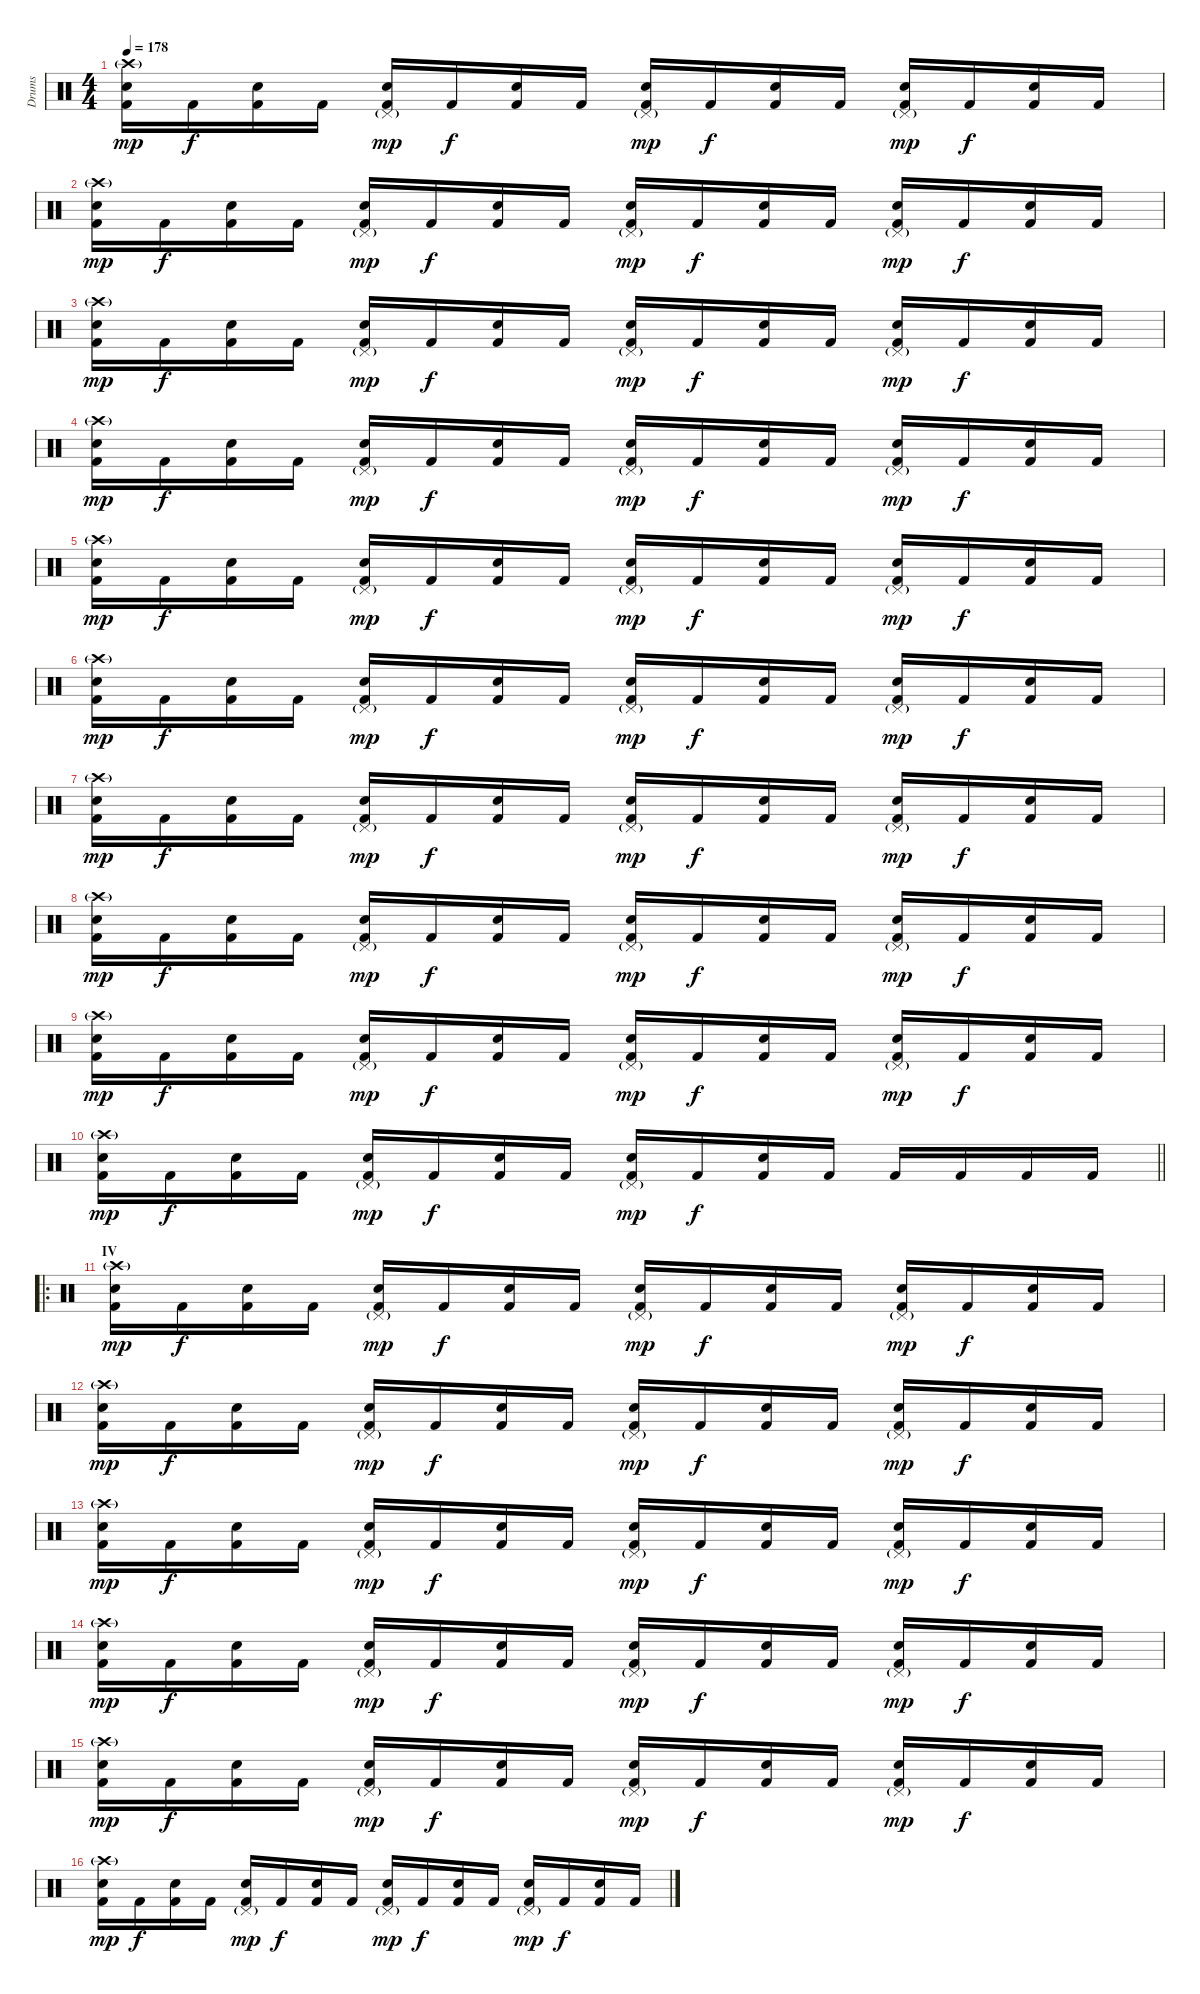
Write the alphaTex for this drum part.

\track ("Drums" "Drums") {instrument percussion}
\staff {score}
\articulation defaults
\ts (4 4)
\tempo 178
\clef neutral
\ks c
("Crash high (hit)"{g} "Electric Snare (hit)" "Kick (hit) 2").16{dy mp} "Kick (hit) 2".16{dy f} ("Electric Snare (hit)" "Kick (hit) 2").16 "Kick (hit) 2".16 ("Pedal Hi-Hat (hit)"{g} "Electric Snare (hit)" "Kick (hit) 2").16{dy mp} "Kick (hit) 2".16{dy f} ("Electric Snare (hit)" "Kick (hit) 2").16 "Kick (hit) 2".16 ("Pedal Hi-Hat (hit)"{g} "Electric Snare (hit)" "Kick (hit) 2").16{dy mp} "Kick (hit) 2".16{dy f} ("Electric Snare (hit)" "Kick (hit) 2").16 "Kick (hit) 2".16 ("Pedal Hi-Hat (hit)"{g} "Electric Snare (hit)" "Kick (hit) 2").16{dy mp} "Kick (hit) 2".16{dy f} ("Electric Snare (hit)" "Kick (hit) 2").16 "Kick (hit) 2".16 |
("Crash high (hit)"{g} "Electric Snare (hit)" "Kick (hit) 2").16{dy mp} "Kick (hit) 2".16{dy f} ("Electric Snare (hit)" "Kick (hit) 2").16 "Kick (hit) 2".16 ("Pedal Hi-Hat (hit)"{g} "Electric Snare (hit)" "Kick (hit) 2").16{dy mp} "Kick (hit) 2".16{dy f} ("Electric Snare (hit)" "Kick (hit) 2").16 "Kick (hit) 2".16 ("Pedal Hi-Hat (hit)"{g} "Electric Snare (hit)" "Kick (hit) 2").16{dy mp} "Kick (hit) 2".16{dy f} ("Electric Snare (hit)" "Kick (hit) 2").16 "Kick (hit) 2".16 ("Pedal Hi-Hat (hit)"{g} "Electric Snare (hit)" "Kick (hit) 2").16{dy mp} "Kick (hit) 2".16{dy f} ("Electric Snare (hit)" "Kick (hit) 2").16 "Kick (hit) 2".16 |
("Crash high (hit)"{g} "Electric Snare (hit)" "Kick (hit) 2").16{dy mp} "Kick (hit) 2".16{dy f} ("Electric Snare (hit)" "Kick (hit) 2").16 "Kick (hit) 2".16 ("Pedal Hi-Hat (hit)"{g} "Electric Snare (hit)" "Kick (hit) 2").16{dy mp} "Kick (hit) 2".16{dy f} ("Electric Snare (hit)" "Kick (hit) 2").16 "Kick (hit) 2".16 ("Pedal Hi-Hat (hit)"{g} "Electric Snare (hit)" "Kick (hit) 2").16{dy mp} "Kick (hit) 2".16{dy f} ("Electric Snare (hit)" "Kick (hit) 2").16 "Kick (hit) 2".16 ("Pedal Hi-Hat (hit)"{g} "Electric Snare (hit)" "Kick (hit) 2").16{dy mp} "Kick (hit) 2".16{dy f} ("Electric Snare (hit)" "Kick (hit) 2").16 "Kick (hit) 2".16 |
("Crash high (hit)"{g} "Electric Snare (hit)" "Kick (hit) 2").16{dy mp} "Kick (hit) 2".16{dy f} ("Electric Snare (hit)" "Kick (hit) 2").16 "Kick (hit) 2".16 ("Pedal Hi-Hat (hit)"{g} "Electric Snare (hit)" "Kick (hit) 2").16{dy mp} "Kick (hit) 2".16{dy f} ("Electric Snare (hit)" "Kick (hit) 2").16 "Kick (hit) 2".16 ("Pedal Hi-Hat (hit)"{g} "Electric Snare (hit)" "Kick (hit) 2").16{dy mp} "Kick (hit) 2".16{dy f} ("Electric Snare (hit)" "Kick (hit) 2").16 "Kick (hit) 2".16 ("Pedal Hi-Hat (hit)"{g} "Electric Snare (hit)" "Kick (hit) 2").16{dy mp} "Kick (hit) 2".16{dy f} ("Electric Snare (hit)" "Kick (hit) 2").16 "Kick (hit) 2".16 |
("Crash high (hit)"{g} "Electric Snare (hit)" "Kick (hit) 2").16{dy mp} "Kick (hit) 2".16{dy f} ("Electric Snare (hit)" "Kick (hit) 2").16 "Kick (hit) 2".16 ("Pedal Hi-Hat (hit)"{g} "Electric Snare (hit)" "Kick (hit) 2").16{dy mp} "Kick (hit) 2".16{dy f} ("Electric Snare (hit)" "Kick (hit) 2").16 "Kick (hit) 2".16 ("Pedal Hi-Hat (hit)"{g} "Electric Snare (hit)" "Kick (hit) 2").16{dy mp} "Kick (hit) 2".16{dy f} ("Electric Snare (hit)" "Kick (hit) 2").16 "Kick (hit) 2".16 ("Pedal Hi-Hat (hit)"{g} "Electric Snare (hit)" "Kick (hit) 2").16{dy mp} "Kick (hit) 2".16{dy f} ("Electric Snare (hit)" "Kick (hit) 2").16 "Kick (hit) 2".16 |
("Crash high (hit)"{g} "Electric Snare (hit)" "Kick (hit) 2").16{dy mp} "Kick (hit) 2".16{dy f} ("Electric Snare (hit)" "Kick (hit) 2").16 "Kick (hit) 2".16 ("Pedal Hi-Hat (hit)"{g} "Electric Snare (hit)" "Kick (hit) 2").16{dy mp} "Kick (hit) 2".16{dy f} ("Electric Snare (hit)" "Kick (hit) 2").16 "Kick (hit) 2".16 ("Pedal Hi-Hat (hit)"{g} "Electric Snare (hit)" "Kick (hit) 2").16{dy mp} "Kick (hit) 2".16{dy f} ("Electric Snare (hit)" "Kick (hit) 2").16 "Kick (hit) 2".16 ("Pedal Hi-Hat (hit)"{g} "Electric Snare (hit)" "Kick (hit) 2").16{dy mp} "Kick (hit) 2".16{dy f} ("Electric Snare (hit)" "Kick (hit) 2").16 "Kick (hit) 2".16 |
("Crash high (hit)"{g} "Electric Snare (hit)" "Kick (hit) 2").16{dy mp} "Kick (hit) 2".16{dy f} ("Electric Snare (hit)" "Kick (hit) 2").16 "Kick (hit) 2".16 ("Pedal Hi-Hat (hit)"{g} "Electric Snare (hit)" "Kick (hit) 2").16{dy mp} "Kick (hit) 2".16{dy f} ("Electric Snare (hit)" "Kick (hit) 2").16 "Kick (hit) 2".16 ("Pedal Hi-Hat (hit)"{g} "Electric Snare (hit)" "Kick (hit) 2").16{dy mp} "Kick (hit) 2".16{dy f} ("Electric Snare (hit)" "Kick (hit) 2").16 "Kick (hit) 2".16 ("Pedal Hi-Hat (hit)"{g} "Electric Snare (hit)" "Kick (hit) 2").16{dy mp} "Kick (hit) 2".16{dy f} ("Electric Snare (hit)" "Kick (hit) 2").16 "Kick (hit) 2".16 |
("Crash high (hit)"{g} "Electric Snare (hit)" "Kick (hit) 2").16{dy mp} "Kick (hit) 2".16{dy f} ("Electric Snare (hit)" "Kick (hit) 2").16 "Kick (hit) 2".16 ("Pedal Hi-Hat (hit)"{g} "Electric Snare (hit)" "Kick (hit) 2").16{dy mp} "Kick (hit) 2".16{dy f} ("Electric Snare (hit)" "Kick (hit) 2").16 "Kick (hit) 2".16 ("Pedal Hi-Hat (hit)"{g} "Electric Snare (hit)" "Kick (hit) 2").16{dy mp} "Kick (hit) 2".16{dy f} ("Electric Snare (hit)" "Kick (hit) 2").16 "Kick (hit) 2".16 ("Pedal Hi-Hat (hit)"{g} "Electric Snare (hit)" "Kick (hit) 2").16{dy mp} "Kick (hit) 2".16{dy f} ("Electric Snare (hit)" "Kick (hit) 2").16 "Kick (hit) 2".16 |
("Crash high (hit)"{g} "Electric Snare (hit)" "Kick (hit) 2").16{dy mp} "Kick (hit) 2".16{dy f} ("Electric Snare (hit)" "Kick (hit) 2").16 "Kick (hit) 2".16 ("Pedal Hi-Hat (hit)"{g} "Electric Snare (hit)" "Kick (hit) 2").16{dy mp} "Kick (hit) 2".16{dy f} ("Electric Snare (hit)" "Kick (hit) 2").16 "Kick (hit) 2".16 ("Pedal Hi-Hat (hit)"{g} "Electric Snare (hit)" "Kick (hit) 2").16{dy mp} "Kick (hit) 2".16{dy f} ("Electric Snare (hit)" "Kick (hit) 2").16 "Kick (hit) 2".16 ("Pedal Hi-Hat (hit)"{g} "Electric Snare (hit)" "Kick (hit) 2").16{dy mp} "Kick (hit) 2".16{dy f} ("Electric Snare (hit)" "Kick (hit) 2").16 "Kick (hit) 2".16 |
\barLineRight lightlight
("Crash high (hit)"{g} "Electric Snare (hit)" "Kick (hit) 2").16{dy mp} "Kick (hit) 2".16{dy f} ("Electric Snare (hit)" "Kick (hit) 2").16 "Kick (hit) 2".16 ("Pedal Hi-Hat (hit)"{g} "Electric Snare (hit)" "Kick (hit) 2").16{dy mp} "Kick (hit) 2".16{dy f} ("Electric Snare (hit)" "Kick (hit) 2").16 "Kick (hit) 2".16 ("Pedal Hi-Hat (hit)"{g} "Electric Snare (hit)" "Kick (hit) 2").16{dy mp} "Kick (hit) 2".16{dy f} ("Electric Snare (hit)" "Kick (hit) 2").16 "Kick (hit) 2".16 "Kick (hit) 2".16 "Kick (hit) 2".16 "Kick (hit) 2".16 "Kick (hit) 2".16 |
\ro
\section ("" "IV")
("Crash high (hit)"{g} "Electric Snare (hit)" "Kick (hit) 2").16{dy mp} "Kick (hit) 2".16{dy f} ("Electric Snare (hit)" "Kick (hit) 2").16 "Kick (hit) 2".16 ("Pedal Hi-Hat (hit)"{g} "Electric Snare (hit)" "Kick (hit) 2").16{dy mp} "Kick (hit) 2".16{dy f} ("Electric Snare (hit)" "Kick (hit) 2").16 "Kick (hit) 2".16 ("Pedal Hi-Hat (hit)"{g} "Electric Snare (hit)" "Kick (hit) 2").16{dy mp} "Kick (hit) 2".16{dy f} ("Electric Snare (hit)" "Kick (hit) 2").16 "Kick (hit) 2".16 ("Pedal Hi-Hat (hit)"{g} "Electric Snare (hit)" "Kick (hit) 2").16{dy mp} "Kick (hit) 2".16{dy f} ("Electric Snare (hit)" "Kick (hit) 2").16 "Kick (hit) 2".16 |
("Crash high (hit)"{g} "Electric Snare (hit)" "Kick (hit) 2").16{dy mp} "Kick (hit) 2".16{dy f} ("Electric Snare (hit)" "Kick (hit) 2").16 "Kick (hit) 2".16 ("Pedal Hi-Hat (hit)"{g} "Electric Snare (hit)" "Kick (hit) 2").16{dy mp} "Kick (hit) 2".16{dy f} ("Electric Snare (hit)" "Kick (hit) 2").16 "Kick (hit) 2".16 ("Pedal Hi-Hat (hit)"{g} "Electric Snare (hit)" "Kick (hit) 2").16{dy mp} "Kick (hit) 2".16{dy f} ("Electric Snare (hit)" "Kick (hit) 2").16 "Kick (hit) 2".16 ("Pedal Hi-Hat (hit)"{g} "Electric Snare (hit)" "Kick (hit) 2").16{dy mp} "Kick (hit) 2".16{dy f} ("Electric Snare (hit)" "Kick (hit) 2").16 "Kick (hit) 2".16 |
("Crash high (hit)"{g} "Electric Snare (hit)" "Kick (hit) 2").16{dy mp} "Kick (hit) 2".16{dy f} ("Electric Snare (hit)" "Kick (hit) 2").16 "Kick (hit) 2".16 ("Pedal Hi-Hat (hit)"{g} "Electric Snare (hit)" "Kick (hit) 2").16{dy mp} "Kick (hit) 2".16{dy f} ("Electric Snare (hit)" "Kick (hit) 2").16 "Kick (hit) 2".16 ("Pedal Hi-Hat (hit)"{g} "Electric Snare (hit)" "Kick (hit) 2").16{dy mp} "Kick (hit) 2".16{dy f} ("Electric Snare (hit)" "Kick (hit) 2").16 "Kick (hit) 2".16 ("Pedal Hi-Hat (hit)"{g} "Electric Snare (hit)" "Kick (hit) 2").16{dy mp} "Kick (hit) 2".16{dy f} ("Electric Snare (hit)" "Kick (hit) 2").16 "Kick (hit) 2".16 |
("Crash high (hit)"{g} "Electric Snare (hit)" "Kick (hit) 2").16{dy mp} "Kick (hit) 2".16{dy f} ("Electric Snare (hit)" "Kick (hit) 2").16 "Kick (hit) 2".16 ("Pedal Hi-Hat (hit)"{g} "Electric Snare (hit)" "Kick (hit) 2").16{dy mp} "Kick (hit) 2".16{dy f} ("Electric Snare (hit)" "Kick (hit) 2").16 "Kick (hit) 2".16 ("Pedal Hi-Hat (hit)"{g} "Electric Snare (hit)" "Kick (hit) 2").16{dy mp} "Kick (hit) 2".16{dy f} ("Electric Snare (hit)" "Kick (hit) 2").16 "Kick (hit) 2".16 ("Pedal Hi-Hat (hit)"{g} "Electric Snare (hit)" "Kick (hit) 2").16{dy mp} "Kick (hit) 2".16{dy f} ("Electric Snare (hit)" "Kick (hit) 2").16 "Kick (hit) 2".16 |
("Crash high (hit)"{g} "Electric Snare (hit)" "Kick (hit) 2").16{dy mp} "Kick (hit) 2".16{dy f} ("Electric Snare (hit)" "Kick (hit) 2").16 "Kick (hit) 2".16 ("Pedal Hi-Hat (hit)"{g} "Electric Snare (hit)" "Kick (hit) 2").16{dy mp} "Kick (hit) 2".16{dy f} ("Electric Snare (hit)" "Kick (hit) 2").16 "Kick (hit) 2".16 ("Pedal Hi-Hat (hit)"{g} "Electric Snare (hit)" "Kick (hit) 2").16{dy mp} "Kick (hit) 2".16{dy f} ("Electric Snare (hit)" "Kick (hit) 2").16 "Kick (hit) 2".16 ("Pedal Hi-Hat (hit)"{g} "Electric Snare (hit)" "Kick (hit) 2").16{dy mp} "Kick (hit) 2".16{dy f} ("Electric Snare (hit)" "Kick (hit) 2").16 "Kick (hit) 2".16 |
("Crash high (hit)"{g} "Electric Snare (hit)" "Kick (hit) 2").16{dy mp} "Kick (hit) 2".16{dy f} ("Electric Snare (hit)" "Kick (hit) 2").16 "Kick (hit) 2".16 ("Pedal Hi-Hat (hit)"{g} "Electric Snare (hit)" "Kick (hit) 2").16{dy mp} "Kick (hit) 2".16{dy f} ("Electric Snare (hit)" "Kick (hit) 2").16 "Kick (hit) 2".16 ("Pedal Hi-Hat (hit)"{g} "Electric Snare (hit)" "Kick (hit) 2").16{dy mp} "Kick (hit) 2".16{dy f} ("Electric Snare (hit)" "Kick (hit) 2").16 "Kick (hit) 2".16 ("Pedal Hi-Hat (hit)"{g} "Electric Snare (hit)" "Kick (hit) 2").16{dy mp} "Kick (hit) 2".16{dy f} ("Electric Snare (hit)" "Kick (hit) 2").16 "Kick (hit) 2".16
